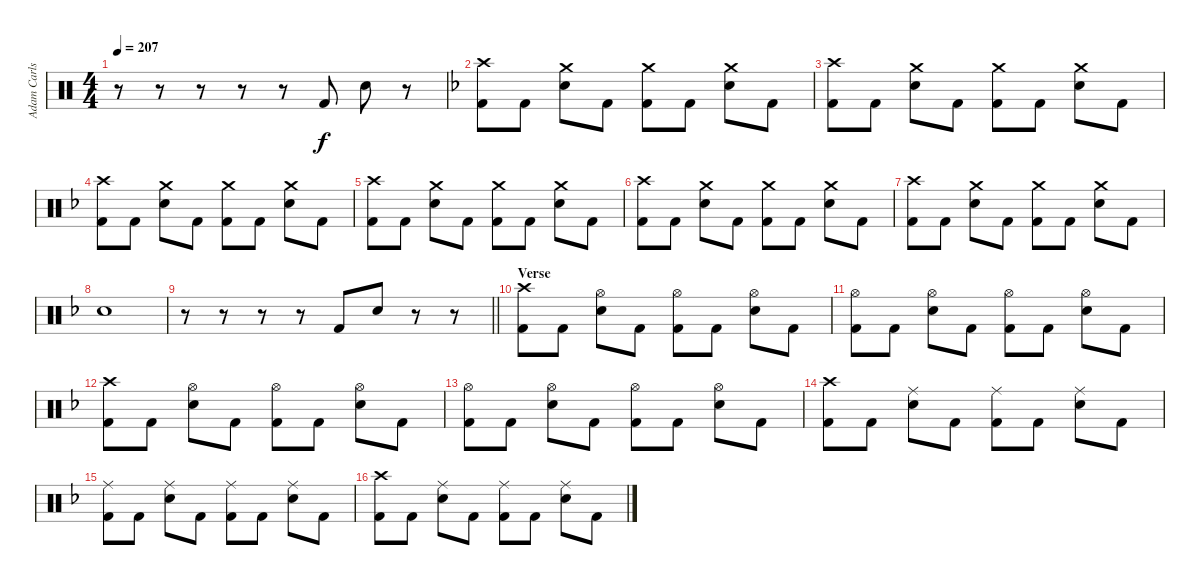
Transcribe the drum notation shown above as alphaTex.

\track ("Adam Carlson" "Adam Carls") {instrument percussion}
\staff {score}
\articulation defaults
\ts (4 4)
\tempo 207
\clef neutral
\ks c
r.8{dy f} r.8 r.8 r.8 r.8 "Kick (hit) 2".8 "Electric Snare (hit)".8 r.8 |
\ks f
("Crash high (hit)" "Kick (hit) 2").8 "Kick (hit) 2".8 ("Crash medium (hit)" "Electric Snare (hit)").8 "Kick (hit) 2".8 ("Crash medium (hit)" "Kick (hit) 2").8 "Kick (hit) 2".8 ("Crash medium (hit)" "Electric Snare (hit)").8 "Kick (hit) 2".8 |
("Crash high (hit)" "Kick (hit) 2").8 "Kick (hit) 2".8 ("Crash medium (hit)" "Electric Snare (hit)").8 "Kick (hit) 2".8 ("Crash medium (hit)" "Kick (hit) 2").8 "Kick (hit) 2".8 ("Crash medium (hit)" "Electric Snare (hit)").8 "Kick (hit) 2".8 |
("Crash high (hit)" "Kick (hit) 2").8 "Kick (hit) 2".8 ("Crash medium (hit)" "Electric Snare (hit)").8 "Kick (hit) 2".8 ("Crash medium (hit)" "Kick (hit) 2").8 "Kick (hit) 2".8 ("Crash medium (hit)" "Electric Snare (hit)").8 "Kick (hit) 2".8 |
("Crash high (hit)" "Kick (hit) 2").8 "Kick (hit) 2".8 ("Crash medium (hit)" "Electric Snare (hit)").8 "Kick (hit) 2".8 ("Crash medium (hit)" "Kick (hit) 2").8 "Kick (hit) 2".8 ("Crash medium (hit)" "Electric Snare (hit)").8 "Kick (hit) 2".8 |
("Crash high (hit)" "Kick (hit) 2").8 "Kick (hit) 2".8 ("Crash medium (hit)" "Electric Snare (hit)").8 "Kick (hit) 2".8 ("Crash medium (hit)" "Kick (hit) 2").8 "Kick (hit) 2".8 ("Crash medium (hit)" "Electric Snare (hit)").8 "Kick (hit) 2".8 |
("Crash high (hit)" "Kick (hit) 2").8 "Kick (hit) 2".8 ("Crash medium (hit)" "Electric Snare (hit)").8 "Kick (hit) 2".8 ("Crash medium (hit)" "Kick (hit) 2").8 "Kick (hit) 2".8 ("Crash medium (hit)" "Electric Snare (hit)").8 "Kick (hit) 2".8 |
"Electric Snare (hit)".1 |
\barLineRight lightlight
r.8 r.8 r.8 r.8 "Kick (hit) 2".8 "Electric Snare (hit)".8 r.8 r.8 |
\section ("" "Verse")
("Crash high (hit)" "Kick (hit) 2").8 "Kick (hit) 2".8 ("Hi-Hat (open)" "Electric Snare (hit)").8 "Kick (hit) 2".8 ("Hi-Hat (open)" "Kick (hit) 2").8 "Kick (hit) 2".8 ("Hi-Hat (open)" "Electric Snare (hit)").8 "Kick (hit) 2".8 |
("Hi-Hat (open)" "Kick (hit) 2").8 "Kick (hit) 2".8 ("Hi-Hat (open)" "Electric Snare (hit)").8 "Kick (hit) 2".8 ("Hi-Hat (open)" "Kick (hit) 2").8 "Kick (hit) 2".8 ("Hi-Hat (open)" "Electric Snare (hit)").8 "Kick (hit) 2".8 |
("Crash high (hit)" "Kick (hit) 2").8 "Kick (hit) 2".8 ("Hi-Hat (open)" "Electric Snare (hit)").8 "Kick (hit) 2".8 ("Hi-Hat (open)" "Kick (hit) 2").8 "Kick (hit) 2".8 ("Hi-Hat (open)" "Electric Snare (hit)").8 "Kick (hit) 2".8 |
("Hi-Hat (open)" "Kick (hit) 2").8 "Kick (hit) 2".8 ("Hi-Hat (open)" "Electric Snare (hit)").8 "Kick (hit) 2".8 ("Hi-Hat (open)" "Kick (hit) 2").8 "Kick (hit) 2".8 ("Hi-Hat (open)" "Electric Snare (hit)").8 "Kick (hit) 2".8 |
("Crash high (hit)" "Kick (hit) 2").8 "Kick (hit) 2".8 ("Ride (middle)" "Electric Snare (hit)").8 "Kick (hit) 2".8 ("Ride (middle)" "Kick (hit) 2").8 "Kick (hit) 2".8 ("Ride (middle)" "Electric Snare (hit)").8 "Kick (hit) 2".8 |
("Ride (middle)" "Kick (hit) 2").8 "Kick (hit) 2".8 ("Ride (middle)" "Electric Snare (hit)").8 "Kick (hit) 2".8 ("Ride (middle)" "Kick (hit) 2").8 "Kick (hit) 2".8 ("Ride (middle)" "Electric Snare (hit)").8 "Kick (hit) 2".8 |
("Crash high (hit)" "Kick (hit) 2").8 "Kick (hit) 2".8 ("Ride (middle)" "Electric Snare (hit)").8 "Kick (hit) 2".8 ("Ride (middle)" "Kick (hit) 2").8 "Kick (hit) 2".8 ("Ride (middle)" "Electric Snare (hit)").8 "Kick (hit) 2".8
